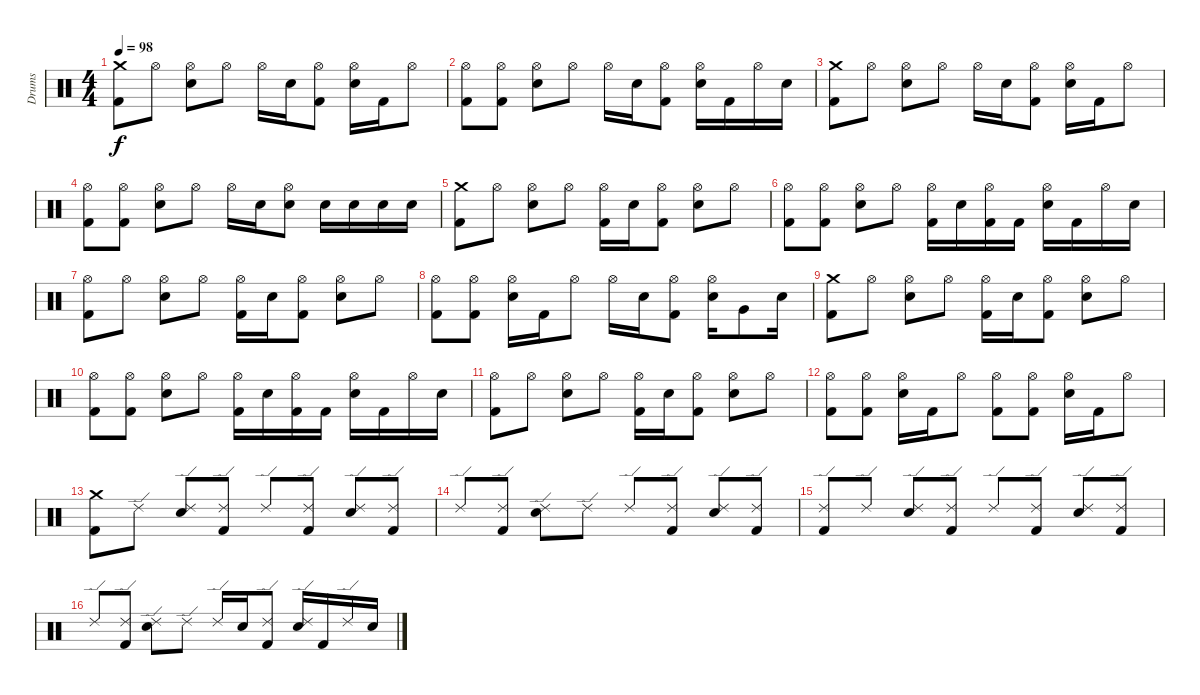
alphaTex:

\track ("Drums" "Drums") {instrument percussion}
\staff {score}
\articulation defaults
\ts (4 4)
\tempo 98
\clef neutral
\ks c
("Crash medium (hit)" "Kick (hit) 2").8{dy f} "Hi-Hat (open)".8 ("Hi-Hat (open)" "Electric Snare (hit)").8 "Hi-Hat (open)".8 "Hi-Hat (open)".16 "Electric Snare (hit)".16 ("Hi-Hat (open)" "Kick (hit) 2").8 ("Hi-Hat (open)" "Electric Snare (hit)").16 "Kick (hit) 2".16 "Hi-Hat (open)".8 |
("Hi-Hat (open)" "Kick (hit) 2").8 ("Hi-Hat (open)" "Kick (hit) 2").8 ("Hi-Hat (open)" "Electric Snare (hit)").8 "Hi-Hat (open)".8 "Hi-Hat (open)".16 "Electric Snare (hit)".16 ("Hi-Hat (open)" "Kick (hit) 2").8 ("Hi-Hat (open)" "Electric Snare (hit)").16 "Kick (hit) 2".16 "Hi-Hat (open)".16 "Electric Snare (hit)".16 |
("Crash medium (hit)" "Kick (hit) 2").8 "Hi-Hat (open)".8 ("Hi-Hat (open)" "Electric Snare (hit)").8 "Hi-Hat (open)".8 "Hi-Hat (open)".16 "Electric Snare (hit)".16 ("Hi-Hat (open)" "Kick (hit) 2").8 ("Hi-Hat (open)" "Electric Snare (hit)").16 "Kick (hit) 2".16 "Hi-Hat (open)".8 |
("Hi-Hat (open)" "Kick (hit) 2").8 ("Hi-Hat (open)" "Kick (hit) 2").8 ("Hi-Hat (open)" "Electric Snare (hit)").8 "Hi-Hat (open)".8 "Hi-Hat (open)".16 "Electric Snare (hit)".16 ("Hi-Hat (open)" "Electric Snare (hit)").8 "Electric Snare (hit)".16 "Electric Snare (hit)".16 "Electric Snare (hit)".16 "Electric Snare (hit)".16 |
("Crash medium (hit)" "Kick (hit) 2").8 "Hi-Hat (open)".8 ("Hi-Hat (open)" "Electric Snare (hit)").8 "Hi-Hat (open)".8 ("Hi-Hat (open)" "Kick (hit) 2").16 "Electric Snare (hit)".16 ("Hi-Hat (open)" "Kick (hit) 2").8 ("Hi-Hat (open)" "Electric Snare (hit)").8 "Hi-Hat (open)".8 |
("Hi-Hat (open)" "Kick (hit) 2").8 ("Hi-Hat (open)" "Kick (hit) 2").8 ("Hi-Hat (open)" "Electric Snare (hit)").8 "Hi-Hat (open)".8 ("Hi-Hat (open)" "Kick (hit) 2").16 "Electric Snare (hit)".16 ("Hi-Hat (open)" "Kick (hit) 2").16 "Kick (hit) 2".16 ("Hi-Hat (open)" "Electric Snare (hit)").16 "Kick (hit) 2".16 "Hi-Hat (open)".16 "Electric Snare (hit)".16 |
("Hi-Hat (open)" "Kick (hit) 2").8 "Hi-Hat (open)".8 ("Hi-Hat (open)" "Electric Snare (hit)").8 "Hi-Hat (open)".8 ("Hi-Hat (open)" "Kick (hit) 2").16 "Electric Snare (hit)".16 ("Hi-Hat (open)" "Kick (hit) 2").8 ("Hi-Hat (open)" "Electric Snare (hit)").8 "Hi-Hat (open)".8 |
("Hi-Hat (open)" "Kick (hit) 2").8 ("Hi-Hat (open)" "Kick (hit) 2").8 ("Hi-Hat (open)" "Electric Snare (hit)").16 "Kick (hit) 2".16 "Hi-Hat (open)".8 "Hi-Hat (open)".16 "Electric Snare (hit)".16 ("Hi-Hat (open)" "Kick (hit) 2").8 ("Hi-Hat (open)" "Electric Snare (hit)").16 "Very Low Tom (hit)".8 "Electric Snare (hit)".16 |
("Crash medium (hit)" "Kick (hit) 2").8 "Hi-Hat (open)".8 ("Hi-Hat (open)" "Electric Snare (hit)").8 "Hi-Hat (open)".8 ("Hi-Hat (open)" "Kick (hit) 2").16 "Electric Snare (hit)".16 ("Hi-Hat (open)" "Kick (hit) 2").8 ("Hi-Hat (open)" "Electric Snare (hit)").8 "Hi-Hat (open)".8 |
("Hi-Hat (open)" "Kick (hit) 2").8 ("Hi-Hat (open)" "Kick (hit) 2").8 ("Hi-Hat (open)" "Electric Snare (hit)").8 "Hi-Hat (open)".8 ("Hi-Hat (open)" "Kick (hit) 2").16 "Electric Snare (hit)".16 ("Hi-Hat (open)" "Kick (hit) 2").16 "Kick (hit) 2".16 ("Hi-Hat (open)" "Electric Snare (hit)").16 "Kick (hit) 2".16 "Hi-Hat (open)".16 "Electric Snare (hit)".16 |
("Hi-Hat (open)" "Kick (hit) 2").8 "Hi-Hat (open)".8 ("Hi-Hat (open)" "Electric Snare (hit)").8 "Hi-Hat (open)".8 ("Hi-Hat (open)" "Kick (hit) 2").16 "Electric Snare (hit)".16 ("Hi-Hat (open)" "Kick (hit) 2").8 ("Hi-Hat (open)" "Electric Snare (hit)").8 "Hi-Hat (open)".8 |
("Hi-Hat (open)" "Kick (hit) 2").8 ("Hi-Hat (open)" "Kick (hit) 2").8 ("Hi-Hat (open)" "Electric Snare (hit)").16 "Kick (hit) 2".16 "Hi-Hat (open)".8 ("Hi-Hat (open)" "Kick (hit) 2").8 ("Hi-Hat (open)" "Kick (hit) 2").8 ("Hi-Hat (open)" "Electric Snare (hit)").16 "Kick (hit) 2".16 "Hi-Hat (open)".8 |
("Crash medium (hit)" "Kick (hit) 2").8 "Ride (edge) 2".8 ("Ride (edge) 2" "Electric Snare (hit)").8 ("Ride (edge) 2" "Kick (hit) 2").8 "Ride (edge) 2".8 ("Ride (edge) 2" "Kick (hit) 2").8 ("Ride (edge) 2" "Electric Snare (hit)").8 ("Ride (edge) 2" "Kick (hit) 2").8 |
"Ride (edge) 2".8 ("Ride (edge) 2" "Kick (hit) 2").8 ("Ride (edge) 2" "Electric Snare (hit)").8 "Ride (edge) 2".8 "Ride (edge) 2".8 ("Ride (edge) 2" "Kick (hit) 2").8 ("Ride (edge) 2" "Electric Snare (hit)").8 ("Ride (edge) 2" "Kick (hit) 2").8 |
("Ride (edge) 2" "Kick (hit) 2").8 "Ride (edge) 2".8 ("Ride (edge) 2" "Electric Snare (hit)").8 ("Ride (edge) 2" "Kick (hit) 2").8 "Ride (edge) 2".8 ("Ride (edge) 2" "Kick (hit) 2").8 ("Ride (edge) 2" "Electric Snare (hit)").8 ("Ride (edge) 2" "Kick (hit) 2").8 |
"Ride (edge) 2".8 ("Ride (edge) 2" "Kick (hit) 2").8 ("Ride (edge) 2" "Electric Snare (hit)").8 "Ride (edge) 2".8 "Ride (edge) 2".16 "Electric Snare (hit)".16 ("Ride (edge) 2" "Kick (hit) 2").8 ("Ride (edge) 2" "Electric Snare (hit)").16 "Kick (hit) 2".16 "Ride (edge) 2".16 "Electric Snare (hit)".16
